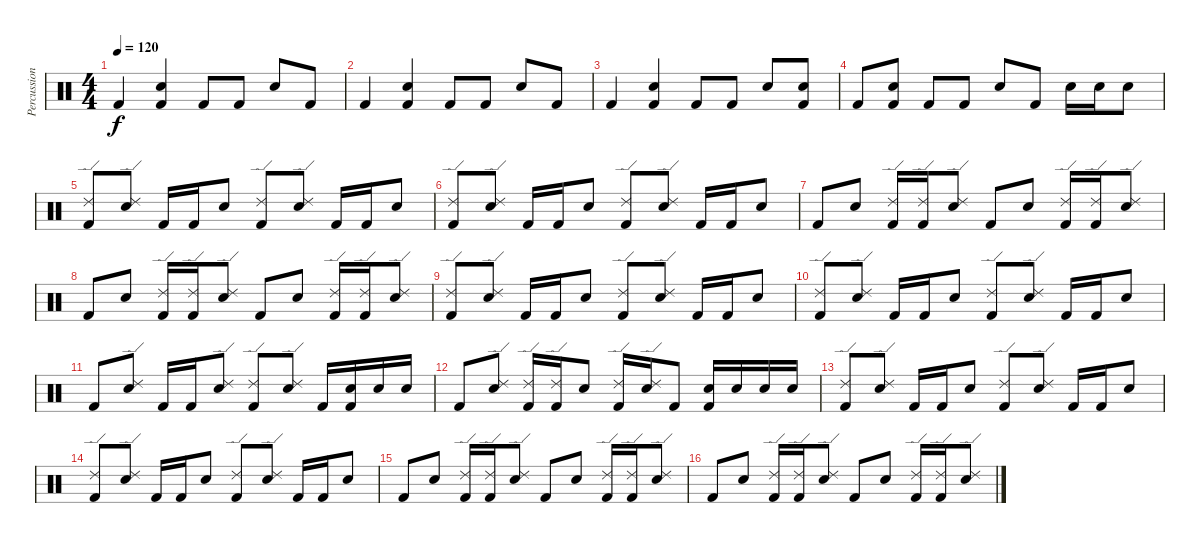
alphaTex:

\track ("Percussion" "Percussion") {instrument percussion}
\staff {score}
\articulation defaults
\ts (4 4)
\tempo 120
\clef neutral
\ks c "Kick (hit) 2".4{dy f}
("Kick (hit) 2" "Snare (hit) 2").4 "Kick (hit) 2".8 "Kick (hit) 2".8 "Snare (hit) 2".8 "Kick (hit) 2".8 |
"Kick (hit) 2".4 ("Kick (hit) 2" "Snare (hit) 2").4 "Kick (hit) 2".8 "Kick (hit) 2".8 "Snare (hit) 2".8 "Kick (hit) 2".8 |
"Kick (hit) 2".4 ("Kick (hit) 2" "Snare (hit) 2").4 "Kick (hit) 2".8 "Kick (hit) 2".8 "Snare (hit) 2".8 ("Kick (hit) 2" "Snare (hit) 2").8 |
"Kick (hit) 2".8 ("Kick (hit) 2" "Snare (hit) 2").8 "Kick (hit) 2".8 "Kick (hit) 2".8 "Snare (hit) 2".8 "Kick (hit) 2".8 "Snare (hit) 2".16 "Snare (hit) 2".16 "Snare (hit) 2".8 |
("Kick (hit) 2" "Ride (edge) 2").8 ("Snare (hit) 2" "Ride (edge) 2").8 "Kick (hit) 2".16 "Kick (hit) 2".16 "Snare (hit) 2".8 ("Kick (hit) 2" "Ride (edge) 2").8 ("Snare (hit) 2" "Ride (edge) 2").8 "Kick (hit) 2".16 "Kick (hit) 2".16 "Snare (hit) 2".8 |
("Kick (hit) 2" "Ride (edge) 2").8 ("Snare (hit) 2" "Ride (edge) 2").8 "Kick (hit) 2".16 "Kick (hit) 2".16 "Snare (hit) 2".8 ("Kick (hit) 2" "Ride (edge) 2").8 ("Snare (hit) 2" "Ride (edge) 2").8 "Kick (hit) 2".16 "Kick (hit) 2".16 "Snare (hit) 2".8 |
"Kick (hit) 2".8 "Snare (hit) 2".8 ("Kick (hit) 2" "Ride (edge) 2").16 ("Kick (hit) 2" "Ride (edge) 2").16 ("Snare (hit) 2" "Ride (edge) 2").8 "Kick (hit) 2".8 "Snare (hit) 2".8 ("Kick (hit) 2" "Ride (edge) 2").16 ("Kick (hit) 2" "Ride (edge) 2").16 ("Snare (hit) 2" "Ride (edge) 2").8 |
"Kick (hit) 2".8 "Snare (hit) 2".8 ("Kick (hit) 2" "Ride (edge) 2").16 ("Kick (hit) 2" "Ride (edge) 2").16 ("Snare (hit) 2" "Ride (edge) 2").8 "Kick (hit) 2".8 "Snare (hit) 2".8 ("Kick (hit) 2" "Ride (edge) 2").16 ("Kick (hit) 2" "Ride (edge) 2").16 ("Snare (hit) 2" "Ride (edge) 2").8 |
("Kick (hit) 2" "Ride (edge) 2").8 ("Snare (hit) 2" "Ride (edge) 2").8 "Kick (hit) 2".16 "Kick (hit) 2".16 "Snare (hit) 2".8 ("Kick (hit) 2" "Ride (edge) 2").8 ("Snare (hit) 2" "Ride (edge) 2").8 "Kick (hit) 2".16 "Kick (hit) 2".16 "Snare (hit) 2".8 |
("Kick (hit) 2" "Ride (edge) 2").8 ("Snare (hit) 2" "Ride (edge) 2").8 "Kick (hit) 2".16 "Kick (hit) 2".16 "Snare (hit) 2".8 ("Kick (hit) 2" "Ride (edge) 2").8 ("Snare (hit) 2" "Ride (edge) 2").8 "Kick (hit) 2".16 "Kick (hit) 2".16 "Snare (hit) 2".8 |
"Kick (hit) 2".8 ("Snare (hit) 2" "Ride (edge) 2").8 "Kick (hit) 2".16 "Kick (hit) 2".16 ("Snare (hit) 2" "Ride (edge) 2").8 ("Kick (hit) 2" "Ride (edge) 2").8 ("Snare (hit) 2" "Ride (edge) 2").8 "Kick (hit) 2".16 ("Kick (hit) 2" "Snare (hit) 2").16 "Snare (hit) 2".16 "Snare (hit) 2".16 |
"Kick (hit) 2".8 ("Snare (hit) 2" "Ride (edge) 2").8 ("Kick (hit) 2" "Ride (edge) 2").16 ("Kick (hit) 2" "Ride (edge) 2").16 "Snare (hit) 2".8 ("Kick (hit) 2" "Ride (edge) 2").16 ("Snare (hit) 2" "Ride (edge) 2").16 "Kick (hit) 2".8 ("Kick (hit) 2" "Snare (hit) 2").16 "Snare (hit) 2".16 "Snare (hit) 2".16 "Snare (hit) 2".16 |
("Kick (hit) 2" "Ride (edge) 2").8 ("Snare (hit) 2" "Ride (edge) 2").8 "Kick (hit) 2".16 "Kick (hit) 2".16 "Snare (hit) 2".8 ("Kick (hit) 2" "Ride (edge) 2").8 ("Snare (hit) 2" "Ride (edge) 2").8 "Kick (hit) 2".16 "Kick (hit) 2".16 "Snare (hit) 2".8 |
("Kick (hit) 2" "Ride (edge) 2").8 ("Snare (hit) 2" "Ride (edge) 2").8 "Kick (hit) 2".16 "Kick (hit) 2".16 "Snare (hit) 2".8 ("Kick (hit) 2" "Ride (edge) 2").8 ("Snare (hit) 2" "Ride (edge) 2").8 "Kick (hit) 2".16 "Kick (hit) 2".16 "Snare (hit) 2".8 |
"Kick (hit) 2".8 "Snare (hit) 2".8 ("Kick (hit) 2" "Ride (edge) 2").16 ("Kick (hit) 2" "Ride (edge) 2").16 ("Snare (hit) 2" "Ride (edge) 2").8 "Kick (hit) 2".8 "Snare (hit) 2".8 ("Kick (hit) 2" "Ride (edge) 2").16 ("Kick (hit) 2" "Ride (edge) 2").16 ("Snare (hit) 2" "Ride (edge) 2").8 |
"Kick (hit) 2".8 "Snare (hit) 2".8 ("Kick (hit) 2" "Ride (edge) 2").16 ("Kick (hit) 2" "Ride (edge) 2").16 ("Snare (hit) 2" "Ride (edge) 2").8 "Kick (hit) 2".8 "Snare (hit) 2".8 ("Kick (hit) 2" "Ride (edge) 2").16 ("Kick (hit) 2" "Ride (edge) 2").16 ("Snare (hit) 2" "Ride (edge) 2").8
